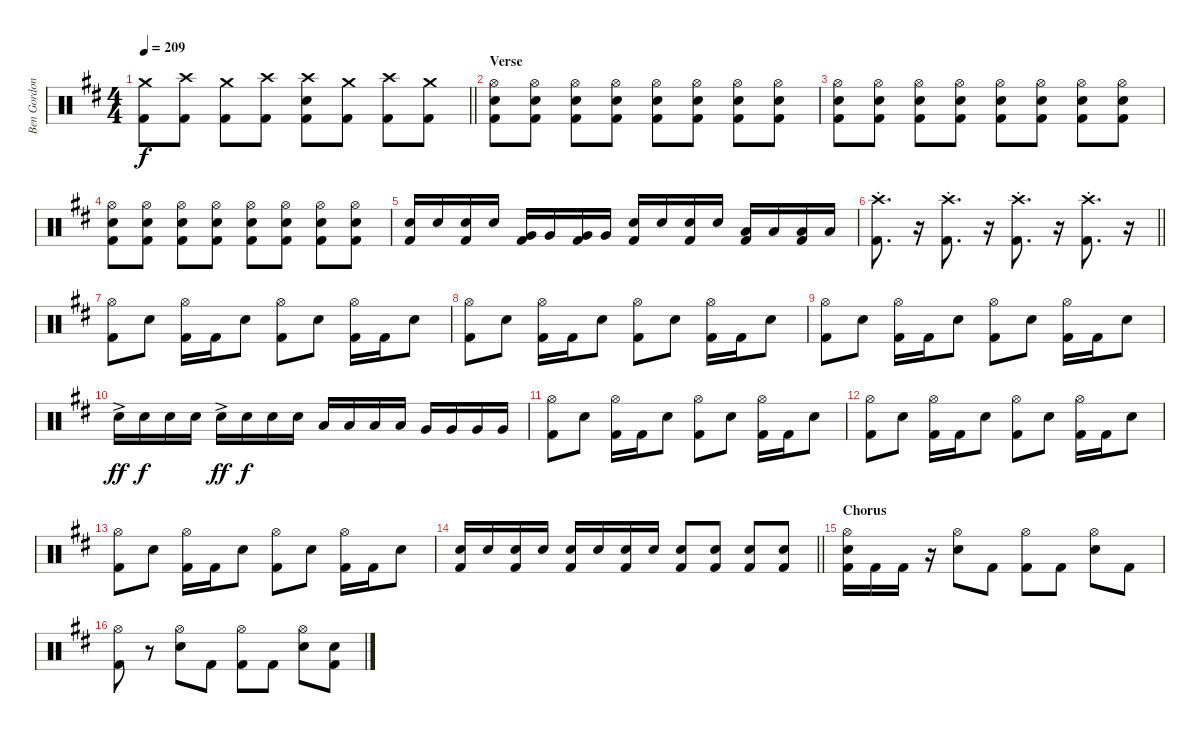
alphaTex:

\track ("Ben Gordon" "Ben Gordon") {instrument percussion}
\staff {score}
\articulation defaults
\ts (4 4)
\tempo 209
\clef neutral
\barLineRight lightlight
\ks d
("Crash medium (hit)" "Kick (hit) 2").8{dy f volume 14} ("Crash high (hit)" "Kick (hit) 2").8 ("Crash medium (hit)" "Kick (hit) 2").8 ("Crash high (hit)" "Kick (hit) 2").8 ("Crash high (hit)" "Electric Snare (hit)" "Kick (hit) 2").8 ("Crash medium (hit)" "Kick (hit) 2").8 ("Crash high (hit)" "Kick (hit) 2").8 ("Crash medium (hit)" "Kick (hit) 2").8 |
\section ("" "Verse")
("Hi-Hat (open)" "Electric Snare (hit)" "Kick (hit) 2").8 ("Hi-Hat (open)" "Electric Snare (hit)" "Kick (hit) 2").8 ("Hi-Hat (open)" "Electric Snare (hit)" "Kick (hit) 2").8 ("Hi-Hat (open)" "Electric Snare (hit)" "Kick (hit) 2").8 ("Hi-Hat (open)" "Electric Snare (hit)" "Kick (hit) 2").8 ("Hi-Hat (open)" "Electric Snare (hit)" "Kick (hit) 2").8 ("Hi-Hat (open)" "Electric Snare (hit)" "Kick (hit) 2").8 ("Hi-Hat (open)" "Electric Snare (hit)" "Kick (hit) 2").8 |
("Hi-Hat (open)" "Electric Snare (hit)" "Kick (hit) 2").8 ("Hi-Hat (open)" "Electric Snare (hit)" "Kick (hit) 2").8 ("Hi-Hat (open)" "Electric Snare (hit)" "Kick (hit) 2").8 ("Hi-Hat (open)" "Electric Snare (hit)" "Kick (hit) 2").8 ("Hi-Hat (open)" "Electric Snare (hit)" "Kick (hit) 2").8 ("Hi-Hat (open)" "Electric Snare (hit)" "Kick (hit) 2").8 ("Hi-Hat (open)" "Electric Snare (hit)" "Kick (hit) 2").8 ("Hi-Hat (open)" "Electric Snare (hit)" "Kick (hit) 2").8 |
("Hi-Hat (open)" "Electric Snare (hit)" "Kick (hit) 2").8 ("Hi-Hat (open)" "Electric Snare (hit)" "Kick (hit) 2").8 ("Hi-Hat (open)" "Electric Snare (hit)" "Kick (hit) 2").8 ("Hi-Hat (open)" "Electric Snare (hit)" "Kick (hit) 2").8 ("Hi-Hat (open)" "Electric Snare (hit)" "Kick (hit) 2").8 ("Hi-Hat (open)" "Electric Snare (hit)" "Kick (hit) 2").8 ("Hi-Hat (open)" "Electric Snare (hit)" "Kick (hit) 2").8 ("Hi-Hat (open)" "Electric Snare (hit)" "Kick (hit) 2").8 |
("Electric Snare (hit)" "Kick (hit) 2").16 "Electric Snare (hit)".16 ("Electric Snare (hit)" "Kick (hit) 2").16 "Electric Snare (hit)".16 ("Very Low Tom (hit)" "Kick (hit) 2").16 "Very Low Tom (hit)".16 ("Very Low Tom (hit)" "Kick (hit) 2").16 "Very Low Tom (hit)".16 ("Electric Snare (hit)" "Kick (hit) 2").16 "Electric Snare (hit)".16 ("Electric Snare (hit)" "Kick (hit) 2").16 "Electric Snare (hit)".16 ("Low Floor Tom (hit)" "Kick (hit) 2").16 "Low Floor Tom (hit)".16 ("Low Floor Tom (hit)" "Kick (hit) 2").16 "Low Floor Tom (hit)".16 |
\barLineRight lightlight
("Crash high (hit)"{st} "Kick (hit) 2").8{d} r.16{volume 0} ("Crash high (hit)"{st} "Kick (hit) 2").8{d volume 14} r.16{volume 0} ("Crash high (hit)"{st} "Kick (hit) 2").8{d volume 14} r.16{volume 0} ("Crash high (hit)"{st} "Kick (hit) 2").8{d volume 14} r.16{volume 0} |
("Hi-Hat (open)" "Kick (hit) 2").8{volume 14} "Electric Snare (hit)".8 ("Hi-Hat (open)" "Kick (hit) 2").16 "Kick (hit) 2".16 "Electric Snare (hit)".8 ("Hi-Hat (open)" "Kick (hit) 2").8 "Electric Snare (hit)".8 ("Hi-Hat (open)" "Kick (hit) 2").16 "Kick (hit) 2".16 "Electric Snare (hit)".8 |
("Hi-Hat (open)" "Kick (hit) 2").8 "Electric Snare (hit)".8 ("Hi-Hat (open)" "Kick (hit) 2").16 "Kick (hit) 2".16 "Electric Snare (hit)".8 ("Hi-Hat (open)" "Kick (hit) 2").8 "Electric Snare (hit)".8 ("Hi-Hat (open)" "Kick (hit) 2").16 "Kick (hit) 2".16 "Electric Snare (hit)".8 |
("Hi-Hat (open)" "Kick (hit) 2").8 "Electric Snare (hit)".8 ("Hi-Hat (open)" "Kick (hit) 2").16 "Kick (hit) 2".16 "Electric Snare (hit)".8 ("Hi-Hat (open)" "Kick (hit) 2").8 "Electric Snare (hit)".8 ("Hi-Hat (open)" "Kick (hit) 2").16 "Kick (hit) 2".16 "Electric Snare (hit)".8 |
"Electric Snare (hit)"{ac}.16{dy ff} "Electric Snare (hit)".16{dy f} "Electric Snare (hit)".16 "Electric Snare (hit)".16 "Electric Snare (hit)"{ac}.16{dy ff} "Electric Snare (hit)".16{dy f} "Electric Snare (hit)".16 "Electric Snare (hit)".16 "Low Tom (hit)".16 "Low Tom (hit)".16 "Low Tom (hit)".16 "Low Tom (hit)".16 "Very Low Tom (hit)".16 "Very Low Tom (hit)".16 "Very Low Tom (hit)".16 "Very Low Tom (hit)".16 |
("Hi-Hat (open)" "Kick (hit) 2").8 "Electric Snare (hit)".8 ("Hi-Hat (open)" "Kick (hit) 2").16 "Kick (hit) 2".16 "Electric Snare (hit)".8 ("Hi-Hat (open)" "Kick (hit) 2").8 "Electric Snare (hit)".8 ("Hi-Hat (open)" "Kick (hit) 2").16 "Kick (hit) 2".16 "Electric Snare (hit)".8 |
("Hi-Hat (open)" "Kick (hit) 2").8 "Electric Snare (hit)".8 ("Hi-Hat (open)" "Kick (hit) 2").16 "Kick (hit) 2".16 "Electric Snare (hit)".8 ("Hi-Hat (open)" "Kick (hit) 2").8 "Electric Snare (hit)".8 ("Hi-Hat (open)" "Kick (hit) 2").16 "Kick (hit) 2".16 "Electric Snare (hit)".8 |
("Hi-Hat (open)" "Kick (hit) 2").8 "Electric Snare (hit)".8 ("Hi-Hat (open)" "Kick (hit) 2").16 "Kick (hit) 2".16 "Electric Snare (hit)".8 ("Hi-Hat (open)" "Kick (hit) 2").8 "Electric Snare (hit)".8 ("Hi-Hat (open)" "Kick (hit) 2").16 "Kick (hit) 2".16 "Electric Snare (hit)".8 |
\barLineRight lightlight
("Electric Snare (hit)" "Kick (hit) 2").16 "Electric Snare (hit)".16 ("Electric Snare (hit)" "Kick (hit) 2").16 "Electric Snare (hit)".16 ("Electric Snare (hit)" "Kick (hit) 2").16 "Electric Snare (hit)".16 ("Electric Snare (hit)" "Kick (hit) 2").16 "Electric Snare (hit)".16 ("Electric Snare (hit)" "Kick (hit) 2").8 ("Electric Snare (hit)" "Kick (hit) 2").8 ("Electric Snare (hit)" "Kick (hit) 2").8 ("Electric Snare (hit)" "Kick (hit) 2").8 |
\section ("" "Chorus")
("Hi-Hat (open)" "Electric Snare (hit)" "Kick (hit) 2").16 "Kick (hit) 2".16 "Kick (hit) 2".16 r.16 ("Hi-Hat (open)" "Electric Snare (hit)").8 "Kick (hit) 2".8 ("Hi-Hat (open)" "Kick (hit) 2").8 "Kick (hit) 2".8 ("Hi-Hat (open)" "Electric Snare (hit)").8 "Kick (hit) 2".8 |
("Hi-Hat (open)" "Kick (hit) 2").8 r.8 ("Hi-Hat (open)" "Electric Snare (hit)").8 "Kick (hit) 2".8 ("Hi-Hat (open)" "Kick (hit) 2").8 "Kick (hit) 2".8 ("Hi-Hat (open)" "Electric Snare (hit)").8 ("Electric Snare (hit)" "Kick (hit) 2").8
